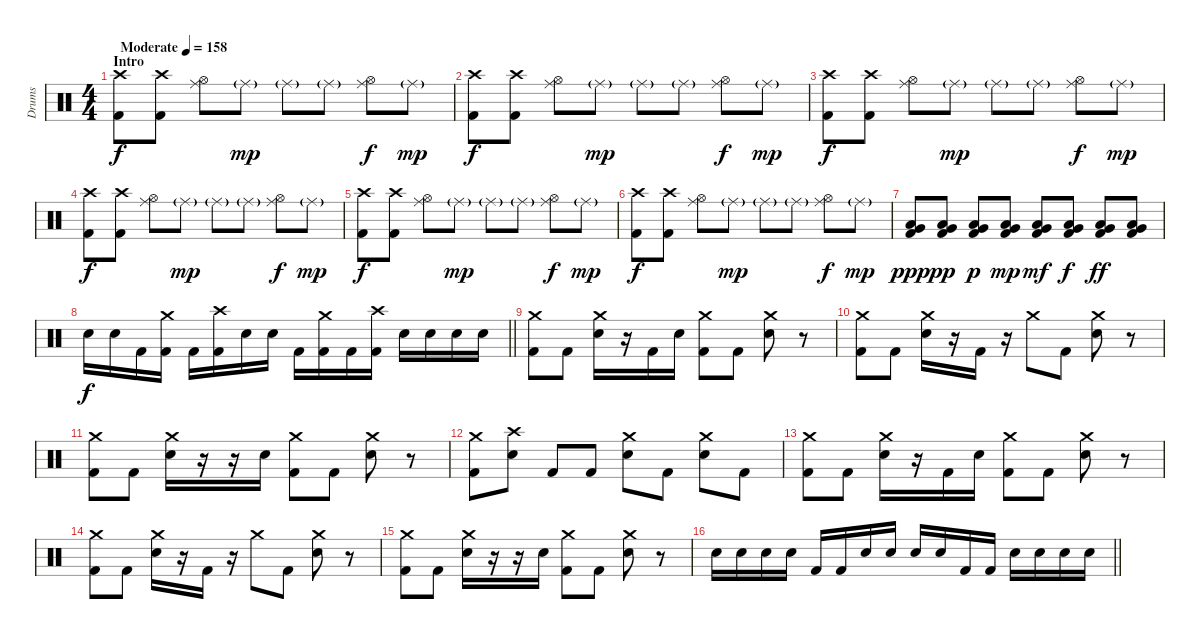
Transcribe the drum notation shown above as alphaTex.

\track ("Drums" "Drums") {instrument percussion}
\staff {score}
\articulation defaults
\ts (4 4)
\section ("" "Intro")
\tempo (158 "Moderate")
\clef neutral
\ks c
("Crash high (hit)" "Kick (hit) 2").8{dy f} ("Crash high (hit)" "Kick (hit) 2").8 ("Ride (middle)" "Hi-Hat (open)").8 "Ride (middle)"{g}.8{dy mp} "Ride (middle)"{g}.8 "Ride (middle)"{g}.8 ("Ride (middle)" "Hi-Hat (open)").8{dy f} "Ride (middle)"{g}.8{dy mp} |
("Crash high (hit)" "Kick (hit) 2").8{dy f} ("Crash high (hit)" "Kick (hit) 2").8 ("Ride (middle)" "Hi-Hat (open)").8 "Ride (middle)"{g}.8{dy mp} "Ride (middle)"{g}.8 "Ride (middle)"{g}.8 ("Ride (middle)" "Hi-Hat (open)").8{dy f} "Ride (middle)"{g}.8{dy mp} |
("Crash high (hit)" "Kick (hit) 2").8{dy f} ("Crash high (hit)" "Kick (hit) 2").8 ("Ride (middle)" "Hi-Hat (open)").8 "Ride (middle)"{g}.8{dy mp} "Ride (middle)"{g}.8 "Ride (middle)"{g}.8 ("Ride (middle)" "Hi-Hat (open)").8{dy f} "Ride (middle)"{g}.8{dy mp} |
("Crash high (hit)" "Kick (hit) 2").8{dy f} ("Crash high (hit)" "Kick (hit) 2").8 ("Ride (middle)" "Hi-Hat (open)").8 "Ride (middle)"{g}.8{dy mp} "Ride (middle)"{g}.8 "Ride (middle)"{g}.8 ("Ride (middle)" "Hi-Hat (open)").8{dy f} "Ride (middle)"{g}.8{dy mp} |
("Crash high (hit)" "Kick (hit) 2").8{dy f} ("Crash high (hit)" "Kick (hit) 2").8 ("Ride (middle)" "Hi-Hat (open)").8 "Ride (middle)"{g}.8{dy mp} "Ride (middle)"{g}.8 "Ride (middle)"{g}.8 ("Ride (middle)" "Hi-Hat (open)").8{dy f} "Ride (middle)"{g}.8{dy mp} |
("Crash high (hit)" "Kick (hit) 2").8{dy f} ("Crash high (hit)" "Kick (hit) 2").8 ("Ride (middle)" "Hi-Hat (open)").8 "Ride (middle)"{g}.8{dy mp} "Ride (middle)"{g}.8 "Ride (middle)"{g}.8 ("Ride (middle)" "Hi-Hat (open)").8{dy f} "Ride (middle)"{g}.8{dy mp} |
("Low Floor Tom (hit)" "Very Low Tom (hit)" "Kick (hit) 2").8{dy ppp} ("Low Floor Tom (hit)" "Very Low Tom (hit)" "Kick (hit) 2").8{dy pp} ("Low Floor Tom (hit)" "Very Low Tom (hit)" "Kick (hit) 2").8{dy p} ("Low Floor Tom (hit)" "Very Low Tom (hit)" "Kick (hit) 2").8{dy mp} ("Low Floor Tom (hit)" "Very Low Tom (hit)" "Kick (hit) 2").8{dy mf} ("Low Floor Tom (hit)" "Very Low Tom (hit)" "Kick (hit) 2").8{dy f} ("Low Floor Tom (hit)" "Very Low Tom (hit)" "Kick (hit) 2").8{dy ff} ("Low Floor Tom (hit)" "Very Low Tom (hit)" "Kick (hit) 2").8 |
\barLineRight lightlight "Snare (hit) 2".16{dy f} "Snare (hit) 2".16 "Kick (hit) 2".16
("Crash medium (hit)" "Kick (hit) 2").16 "Kick (hit) 2".16 ("Crash high (hit)" "Kick (hit) 2").16 "Snare (hit) 2".16 "Snare (hit) 2".16 "Kick (hit) 2".16 ("Crash medium (hit)" "Kick (hit) 2").16 "Kick (hit) 2".16 ("Crash high (hit)" "Kick (hit) 2").16 "Snare (hit) 2".16 "Snare (hit) 2".16 "Snare (hit) 2".16 "Snare (hit) 2".16 |
("Crash medium (hit)" "Kick (hit) 2").8 "Kick (hit) 2".8 ("Crash medium (hit)" "Snare (hit) 2").16 r.16 "Kick (hit) 2".16 "Snare (hit) 2".16 ("Crash medium (hit)" "Kick (hit) 2").8 "Kick (hit) 2".8 ("Crash medium (hit)" "Snare (hit) 2").8 r.8 |
("Crash medium (hit)" "Kick (hit) 2").8 "Kick (hit) 2".8 ("Crash medium (hit)" "Snare (hit) 2").16 r.16 "Kick (hit) 2".16 r.16 "Crash medium (hit)".8 "Kick (hit) 2".8 ("Crash medium (hit)" "Snare (hit) 2").8 r.8 |
("Crash medium (hit)" "Kick (hit) 2").8 "Kick (hit) 2".8 ("Crash medium (hit)" "Snare (hit) 2").16 r.16 r.16 "Snare (hit) 2".16 ("Crash medium (hit)" "Kick (hit) 2").8 "Kick (hit) 2".8 ("Crash medium (hit)" "Snare (hit) 2").8 r.8 |
("Crash medium (hit)" "Kick (hit) 2").8 ("Crash high (hit)" "Snare (hit) 2").8 "Kick (hit) 2".8 "Kick (hit) 2".8 ("Crash medium (hit)" "Snare (hit) 2").8 "Kick (hit) 2".8 ("Crash medium (hit)" "Snare (hit) 2").8 "Kick (hit) 2".8 |
("Crash medium (hit)" "Kick (hit) 2").8 "Kick (hit) 2".8 ("Crash medium (hit)" "Snare (hit) 2").16 r.16 "Kick (hit) 2".16 "Snare (hit) 2".16 ("Crash medium (hit)" "Kick (hit) 2").8 "Kick (hit) 2".8 ("Crash medium (hit)" "Snare (hit) 2").8 r.8 |
("Crash medium (hit)" "Kick (hit) 2").8 "Kick (hit) 2".8 ("Crash medium (hit)" "Snare (hit) 2").16 r.16 "Kick (hit) 2".16 r.16 "Crash medium (hit)".8 "Kick (hit) 2".8 ("Crash medium (hit)" "Snare (hit) 2").8 r.8 |
("Crash medium (hit)" "Kick (hit) 2").8 "Kick (hit) 2".8 ("Crash medium (hit)" "Snare (hit) 2").16 r.16 r.16 "Snare (hit) 2".16 ("Crash medium (hit)" "Kick (hit) 2").8 "Kick (hit) 2".8 ("Crash medium (hit)" "Snare (hit) 2").8 r.8 |
\barLineRight lightlight "Snare (hit) 2".16 "Snare (hit) 2".16 "Snare (hit) 2".16 "Snare (hit) 2".16 "Kick (hit) 2".16 "Kick (hit) 2".16 "Snare (hit) 2".16 "Snare (hit) 2".16 "Snare (hit) 2".16 "Snare (hit) 2".16 "Kick (hit) 2".16 "Kick (hit) 2".16 "Snare (hit) 2".16 "Snare (hit) 2".16 "Snare (hit) 2".16 "Snare (hit) 2".16
